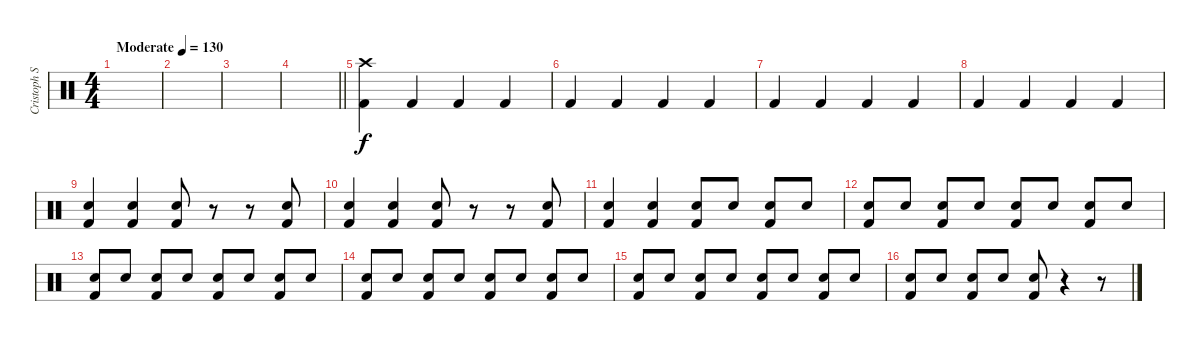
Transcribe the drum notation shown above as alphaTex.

\track ("Cristoph Schneider" "Cristoph S") {instrument percussion}
\staff {score}
\articulation defaults
\ts (4 4)
\tempo (130 "Moderate")
\clef neutral
\ks c
|
|
|
\barLineRight lightlight
|
("Crash high (hit)" "Kick (hit) 2").4 "Kick (hit) 2".4 "Kick (hit) 2".4 "Kick (hit) 2".4 |
"Kick (hit) 2".4 "Kick (hit) 2".4 "Kick (hit) 2".4 "Kick (hit) 2".4 |
"Kick (hit) 2".4 "Kick (hit) 2".4 "Kick (hit) 2".4 "Kick (hit) 2".4 |
"Kick (hit) 2".4 "Kick (hit) 2".4 "Kick (hit) 2".4 "Kick (hit) 2".4 |
("Kick (hit) 2" "Electric Snare (hit)").4 ("Kick (hit) 2" "Electric Snare (hit)").4 ("Kick (hit) 2" "Electric Snare (hit)").8 r.8 r.8 ("Electric Snare (hit)" "Kick (hit) 2").8 |
("Kick (hit) 2" "Electric Snare (hit)").4 ("Kick (hit) 2" "Electric Snare (hit)").4 ("Kick (hit) 2" "Electric Snare (hit)").8 r.8 r.8 ("Electric Snare (hit)" "Kick (hit) 2").8 |
("Kick (hit) 2" "Electric Snare (hit)").4 ("Kick (hit) 2" "Electric Snare (hit)").4 ("Kick (hit) 2" "Electric Snare (hit)").8 "Electric Snare (hit)".8 ("Electric Snare (hit)" "Kick (hit) 2").8 "Electric Snare (hit)".8 |
("Electric Snare (hit)" "Kick (hit) 2").8 "Electric Snare (hit)".8 ("Electric Snare (hit)" "Kick (hit) 2").8 "Electric Snare (hit)".8 ("Electric Snare (hit)" "Kick (hit) 2").8 "Electric Snare (hit)".8 ("Electric Snare (hit)" "Kick (hit) 2").8 "Electric Snare (hit)".8 |
("Electric Snare (hit)" "Kick (hit) 2").8 "Electric Snare (hit)".8 ("Electric Snare (hit)" "Kick (hit) 2").8 "Electric Snare (hit)".8 ("Electric Snare (hit)" "Kick (hit) 2").8 "Electric Snare (hit)".8 ("Electric Snare (hit)" "Kick (hit) 2").8 "Electric Snare (hit)".8 |
("Electric Snare (hit)" "Kick (hit) 2").8 "Electric Snare (hit)".8 ("Electric Snare (hit)" "Kick (hit) 2").8 "Electric Snare (hit)".8 ("Electric Snare (hit)" "Kick (hit) 2").8 "Electric Snare (hit)".8 ("Electric Snare (hit)" "Kick (hit) 2").8 "Electric Snare (hit)".8 |
("Electric Snare (hit)" "Kick (hit) 2").8 "Electric Snare (hit)".8 ("Electric Snare (hit)" "Kick (hit) 2").8 "Electric Snare (hit)".8 ("Electric Snare (hit)" "Kick (hit) 2").8 "Electric Snare (hit)".8 ("Electric Snare (hit)" "Kick (hit) 2").8 "Electric Snare (hit)".8 |
("Electric Snare (hit)" "Kick (hit) 2").8 "Electric Snare (hit)".8 ("Electric Snare (hit)" "Kick (hit) 2").8 "Electric Snare (hit)".8 ("Electric Snare (hit)" "Kick (hit) 2").8 r.4 r.8
